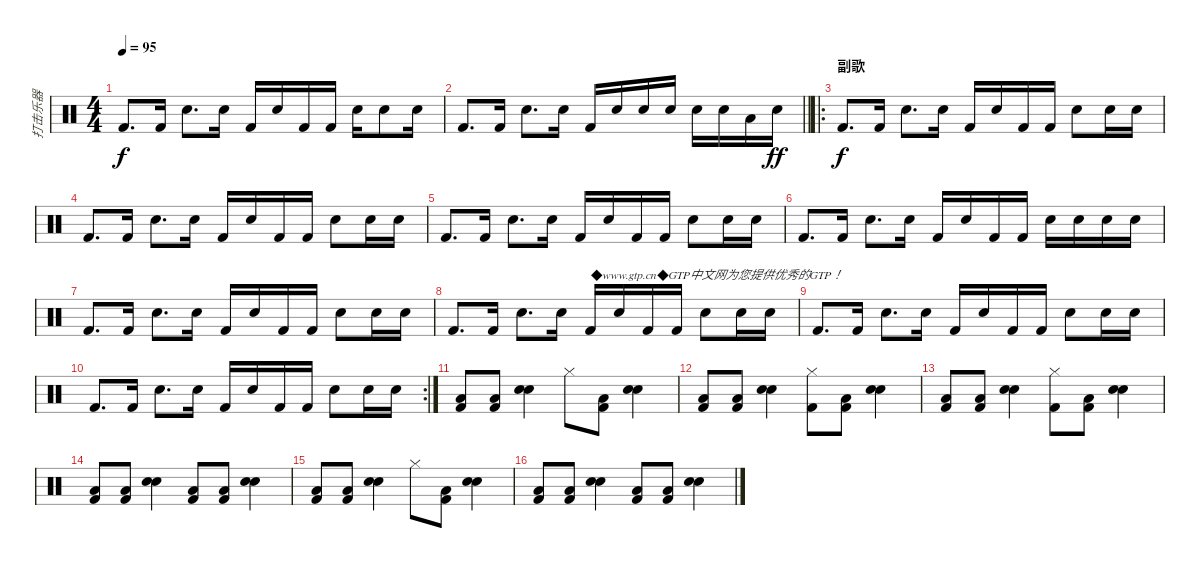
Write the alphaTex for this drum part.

\track ("打击乐器" "打击乐器") {instrument percussion}
\staff {score}
\articulation defaults
\ts (4 4)
\tempo 95
\clef neutral
\ks c "Kick (hit) 2".8{d dy f} "Kick (hit) 2".16 "Electric Snare (hit)".8{d} "Electric Snare (hit)".16 "Kick (hit) 2".16 "Electric Snare (hit)".16 "Kick (hit) 2".16 "Kick (hit) 2".16 "Electric Snare (hit)".16 "Electric Snare (hit)".8 "Electric Snare (hit)".16
|
\barLineRight lightlight "Kick (hit) 2".8{d} "Kick (hit) 2".16 "Electric Snare (hit)".8{d} "Electric Snare (hit)".16 "Kick (hit) 2".16 "Electric Snare (hit)".16 "Electric Snare (hit)".16 "Electric Snare (hit)".16 "Electric Snare (hit)".16 "Electric Snare (hit)".16 "Low Tom (hit)".16 "Electric Snare (hit)".16{dy ff}
|
\ro
\section ("" "副歌")
"Kick (hit) 2".8{d dy f} "Kick (hit) 2".16 "Electric Snare (hit)".8{d} "Electric Snare (hit)".16 "Kick (hit) 2".16 "Electric Snare (hit)".16 "Kick (hit) 2".16 "Kick (hit) 2".16 "Electric Snare (hit)".8 "Electric Snare (hit)".16 "Electric Snare (hit)".16 |
"Kick (hit) 2".8{d} "Kick (hit) 2".16 "Electric Snare (hit)".8{d} "Electric Snare (hit)".16 "Kick (hit) 2".16 "Electric Snare (hit)".16 "Kick (hit) 2".16 "Kick (hit) 2".16 "Electric Snare (hit)".8 "Electric Snare (hit)".16 "Electric Snare (hit)".16 |
"Kick (hit) 2".8{d} "Kick (hit) 2".16 "Electric Snare (hit)".8{d} "Electric Snare (hit)".16 "Kick (hit) 2".16 "Electric Snare (hit)".16 "Kick (hit) 2".16 "Kick (hit) 2".16 "Electric Snare (hit)".8 "Electric Snare (hit)".16 "Electric Snare (hit)".16 |
"Kick (hit) 2".8{d} "Kick (hit) 2".16 "Electric Snare (hit)".8{d} "Electric Snare (hit)".16 "Kick (hit) 2".16 "Electric Snare (hit)".16 "Kick (hit) 2".16 "Kick (hit) 2".16 "Electric Snare (hit)".16 "Electric Snare (hit)".16 "Electric Snare (hit)".16 "Electric Snare (hit)".16 |
"Kick (hit) 2".8{d} "Kick (hit) 2".16 "Electric Snare (hit)".8{d} "Electric Snare (hit)".16 "Kick (hit) 2".16 "Electric Snare (hit)".16 "Kick (hit) 2".16 "Kick (hit) 2".16 "Electric Snare (hit)".8 "Electric Snare (hit)".16 "Electric Snare (hit)".16 |
"Kick (hit) 2".8{d} "Kick (hit) 2".16 "Electric Snare (hit)".8{d} "Electric Snare (hit)".16 "Kick (hit) 2".16{txt "◆www.gtp.cn◆GTP中文网为您提供优秀的GTP！"} "Electric Snare (hit)".16 "Kick (hit) 2".16 "Kick (hit) 2".16 "Electric Snare (hit)".8 "Electric Snare (hit)".16 "Electric Snare (hit)".16 |
"Kick (hit) 2".8{d} "Kick (hit) 2".16 "Electric Snare (hit)".8{d} "Electric Snare (hit)".16 "Kick (hit) 2".16 "Electric Snare (hit)".16 "Kick (hit) 2".16 "Kick (hit) 2".16 "Electric Snare (hit)".8 "Electric Snare (hit)".16 "Electric Snare (hit)".16 |
\rc 2 "Kick (hit) 2".8{d} "Kick (hit) 2".16 "Electric Snare (hit)".8{d} "Electric Snare (hit)".16 "Kick (hit) 2".16 "Electric Snare (hit)".16 "Kick (hit) 2".16 "Kick (hit) 2".16 "Electric Snare (hit)".8 "Electric Snare (hit)".16 "Electric Snare (hit)".16
|
("Kick (hit) 2" "Low Floor Tom (hit)").8 ("Kick (hit) 2" "Low Floor Tom (hit)").8 ("Snare (hit) 2" "Hand Clap (hit)").4 "Hi-Hat (closed)".8 ("Kick (hit) 2" "Low Floor Tom (hit)").8 ("Snare (hit) 2" "Hand Clap (hit)").4 |
("Kick (hit) 2" "Low Floor Tom (hit)").8 ("Kick (hit) 2" "Low Floor Tom (hit)").8 ("Snare (hit) 2" "Hand Clap (hit)").4 ("Kick (hit) 2" "Hi-Hat (closed)").8 ("Kick (hit) 2" "Low Floor Tom (hit)").8 ("Snare (hit) 2" "Hand Clap (hit)").4 |
("Kick (hit) 2" "Low Floor Tom (hit)").8 ("Kick (hit) 2" "Low Floor Tom (hit)").8 ("Snare (hit) 2" "Hand Clap (hit)").4 ("Kick (hit) 2" "Hi-Hat (closed)").8 ("Kick (hit) 2" "Low Floor Tom (hit)").8 ("Snare (hit) 2" "Hand Clap (hit)").4 |
("Kick (hit) 2" "Low Floor Tom (hit)").8 ("Kick (hit) 2" "Low Floor Tom (hit)").8 ("Snare (hit) 2" "Hand Clap (hit)").4 ("Kick (hit) 2" "Low Floor Tom (hit)").8 ("Kick (hit) 2" "Low Floor Tom (hit)").8 ("Snare (hit) 2" "Hand Clap (hit)").4 |
("Kick (hit) 2" "Low Floor Tom (hit)").8 ("Kick (hit) 2" "Low Floor Tom (hit)").8 ("Snare (hit) 2" "Hand Clap (hit)").4 "Hi-Hat (closed)".8 ("Kick (hit) 2" "Low Floor Tom (hit)").8 ("Snare (hit) 2" "Hand Clap (hit)").4 |
("Kick (hit) 2" "Low Floor Tom (hit)").8 ("Kick (hit) 2" "Low Floor Tom (hit)").8 ("Snare (hit) 2" "Hand Clap (hit)").4 ("Kick (hit) 2" "Low Floor Tom (hit)").8 ("Kick (hit) 2" "Low Floor Tom (hit)").8 ("Snare (hit) 2" "Hand Clap (hit)").4
